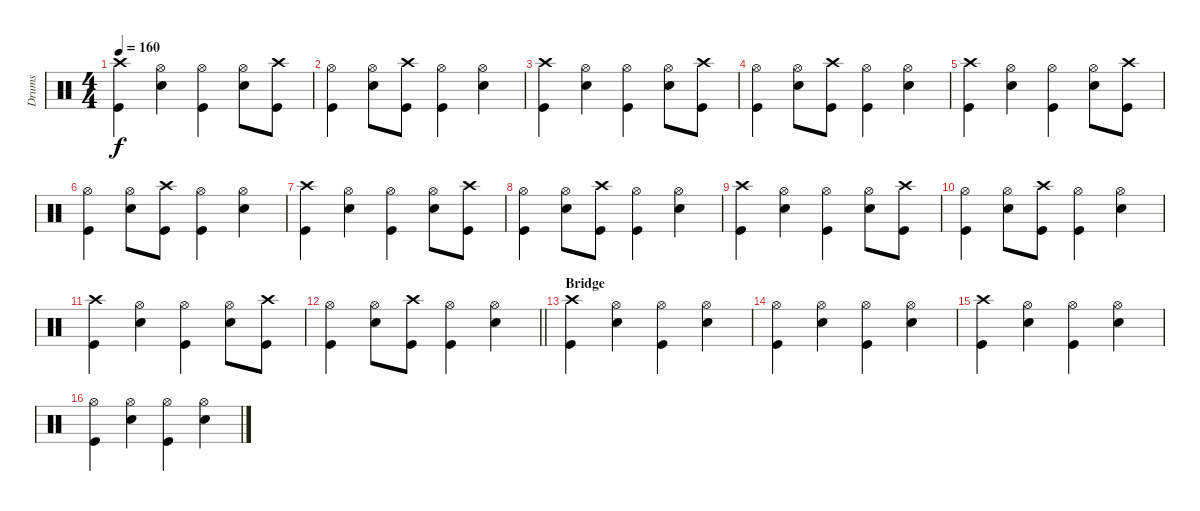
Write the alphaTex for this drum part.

\track ("Drums" "Drums") {instrument percussion}
\staff {score}
\articulation defaults
\ts (4 4)
\tempo 160
\clef neutral
\ks c
("Kick (hit)" "Crash high (hit)").4{dy f} ("Snare (hit) 2" "Hi-Hat (open)").4 ("Kick (hit)" "Hi-Hat (open)").4 ("Snare (hit) 2" "Hi-Hat (open)").8 ("Kick (hit)" "Crash high (hit)").8 |
("Kick (hit)" "Hi-Hat (open)").4 ("Snare (hit) 2" "Hi-Hat (open)").8 ("Kick (hit)" "Crash high (hit)").8 ("Kick (hit)" "Hi-Hat (open)").4 ("Snare (hit) 2" "Hi-Hat (open)").4 |
("Kick (hit)" "Crash high (hit)").4 ("Snare (hit) 2" "Hi-Hat (open)").4 ("Kick (hit)" "Hi-Hat (open)").4 ("Snare (hit) 2" "Hi-Hat (open)").8 ("Kick (hit)" "Crash high (hit)").8 |
("Kick (hit)" "Hi-Hat (open)").4 ("Snare (hit) 2" "Hi-Hat (open)").8 ("Kick (hit)" "Crash high (hit)").8 ("Kick (hit)" "Hi-Hat (open)").4 ("Snare (hit) 2" "Hi-Hat (open)").4 |
("Kick (hit)" "Crash high (hit)").4 ("Snare (hit) 2" "Hi-Hat (open)").4 ("Kick (hit)" "Hi-Hat (open)").4 ("Snare (hit) 2" "Hi-Hat (open)").8 ("Kick (hit)" "Crash high (hit)").8 |
("Kick (hit)" "Hi-Hat (open)").4 ("Snare (hit) 2" "Hi-Hat (open)").8 ("Kick (hit)" "Crash high (hit)").8 ("Kick (hit)" "Hi-Hat (open)").4 ("Snare (hit) 2" "Hi-Hat (open)").4 |
("Kick (hit)" "Crash high (hit)").4 ("Snare (hit) 2" "Hi-Hat (open)").4 ("Kick (hit)" "Hi-Hat (open)").4 ("Snare (hit) 2" "Hi-Hat (open)").8 ("Kick (hit)" "Crash high (hit)").8 |
("Kick (hit)" "Hi-Hat (open)").4 ("Snare (hit) 2" "Hi-Hat (open)").8 ("Kick (hit)" "Crash high (hit)").8 ("Kick (hit)" "Hi-Hat (open)").4 ("Snare (hit) 2" "Hi-Hat (open)").4 |
("Kick (hit)" "Crash high (hit)").4 ("Snare (hit) 2" "Hi-Hat (open)").4 ("Kick (hit)" "Hi-Hat (open)").4 ("Snare (hit) 2" "Hi-Hat (open)").8 ("Kick (hit)" "Crash high (hit)").8 |
("Kick (hit)" "Hi-Hat (open)").4 ("Snare (hit) 2" "Hi-Hat (open)").8 ("Kick (hit)" "Crash high (hit)").8 ("Kick (hit)" "Hi-Hat (open)").4 ("Snare (hit) 2" "Hi-Hat (open)").4 |
("Kick (hit)" "Crash high (hit)").4 ("Snare (hit) 2" "Hi-Hat (open)").4 ("Kick (hit)" "Hi-Hat (open)").4 ("Snare (hit) 2" "Hi-Hat (open)").8 ("Kick (hit)" "Crash high (hit)").8 |
\barLineRight lightlight
("Kick (hit)" "Hi-Hat (open)").4 ("Snare (hit) 2" "Hi-Hat (open)").8 ("Kick (hit)" "Crash high (hit)").8 ("Kick (hit)" "Hi-Hat (open)").4 ("Snare (hit) 2" "Hi-Hat (open)").4 |
\section ("" "Bridge")
("Kick (hit)" "Crash high (hit)").4 ("Snare (hit) 2" "Hi-Hat (open)").4 ("Kick (hit)" "Hi-Hat (open)").4 ("Snare (hit) 2" "Hi-Hat (open)").4 |
("Kick (hit)" "Hi-Hat (open)").4 ("Snare (hit) 2" "Hi-Hat (open)").4 ("Kick (hit)" "Hi-Hat (open)").4 ("Snare (hit) 2" "Hi-Hat (open)").4 |
("Kick (hit)" "Crash high (hit)").4 ("Snare (hit) 2" "Hi-Hat (open)").4 ("Kick (hit)" "Hi-Hat (open)").4 ("Snare (hit) 2" "Hi-Hat (open)").4 |
("Kick (hit)" "Hi-Hat (open)").4 ("Snare (hit) 2" "Hi-Hat (open)").4 ("Kick (hit)" "Hi-Hat (open)").4 ("Snare (hit) 2" "Hi-Hat (open)").4
